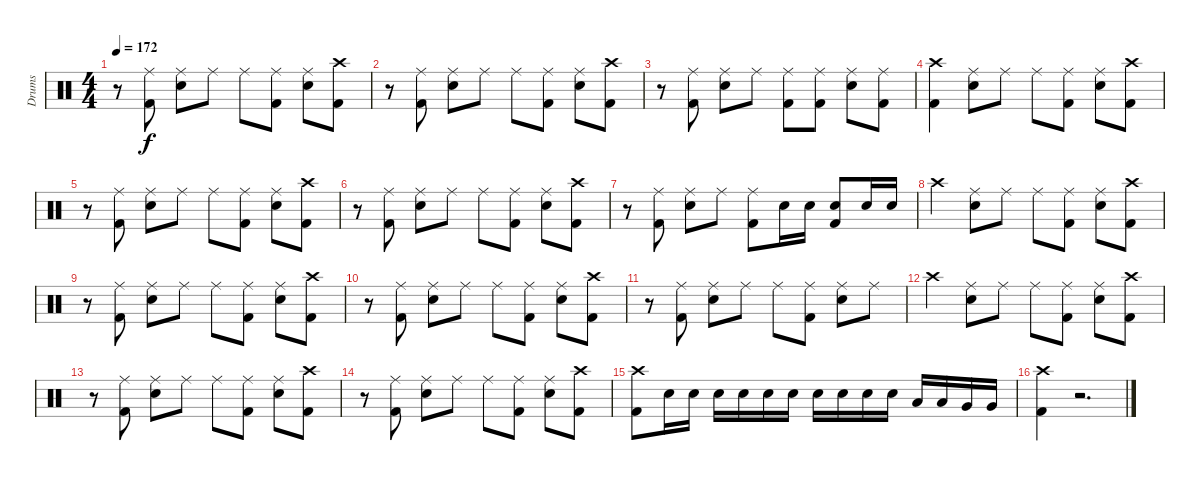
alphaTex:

\track ("Drums" "Drums") {instrument percussion}
\staff {score}
\articulation defaults
\ts (4 4)
\tempo 172
\clef neutral
\ks c
r.8{dy f} ("Ride (middle)" "Kick (hit) 2").8 ("Ride (middle)" "Electric Snare (hit)").8 "Ride (middle)".8 "Ride (middle)".8 ("Ride (middle)" "Kick (hit) 2").8 ("Ride (middle)" "Electric Snare (hit)").8 ("Crash high (hit)" "Kick (hit) 2").8 |
r.8 ("Ride (middle)" "Kick (hit) 2").8 ("Ride (middle)" "Electric Snare (hit)").8 "Ride (middle)".8 "Ride (middle)".8 ("Ride (middle)" "Kick (hit) 2").8 ("Ride (middle)" "Electric Snare (hit)").8 ("Crash high (hit)" "Kick (hit) 2").8 |
r.8 ("Ride (middle)" "Kick (hit) 2").8 ("Ride (middle)" "Electric Snare (hit)").8 "Ride (middle)".8 ("Ride (middle)" "Kick (hit) 2").8 ("Ride (middle)" "Kick (hit) 2").8 ("Ride (middle)" "Electric Snare (hit)").8 ("Ride (middle)" "Kick (hit) 2").8 |
("Crash high (hit)" "Kick (hit) 2").4 ("Ride (middle)" "Electric Snare (hit)").8 "Ride (middle)".8 "Ride (middle)".8 ("Ride (middle)" "Kick (hit) 2").8 ("Ride (middle)" "Electric Snare (hit)").8 ("Crash high (hit)" "Kick (hit) 2").8 |
r.8 ("Ride (middle)" "Kick (hit) 2").8 ("Ride (middle)" "Electric Snare (hit)").8 "Ride (middle)".8 "Ride (middle)".8 ("Ride (middle)" "Kick (hit) 2").8 ("Ride (middle)" "Electric Snare (hit)").8 ("Crash high (hit)" "Kick (hit) 2").8 |
r.8 ("Ride (middle)" "Kick (hit) 2").8 ("Ride (middle)" "Electric Snare (hit)").8 "Ride (middle)".8 "Ride (middle)".8 ("Ride (middle)" "Kick (hit) 2").8 ("Ride (middle)" "Electric Snare (hit)").8 ("Crash high (hit)" "Kick (hit) 2").8 |
r.8 ("Ride (middle)" "Kick (hit) 2").8 ("Ride (middle)" "Electric Snare (hit)").8 "Ride (middle)".8 ("Ride (middle)" "Kick (hit) 2").8 "Electric Snare (hit)".16 "Electric Snare (hit)".16 ("Electric Snare (hit)" "Kick (hit) 2").8 "Electric Snare (hit)".16 "Electric Snare (hit)".16 |
"Crash high (hit)".4 ("Ride (middle)" "Electric Snare (hit)").8 "Ride (middle)".8 "Ride (middle)".8 ("Ride (middle)" "Kick (hit) 2").8 ("Ride (middle)" "Electric Snare (hit)").8 ("Crash high (hit)" "Kick (hit) 2").8 |
r.8 ("Ride (middle)" "Kick (hit) 2").8 ("Ride (middle)" "Electric Snare (hit)").8 "Ride (middle)".8 "Ride (middle)".8 ("Ride (middle)" "Kick (hit) 2").8 ("Ride (middle)" "Electric Snare (hit)").8 ("Crash high (hit)" "Kick (hit) 2").8 |
r.8 ("Ride (middle)" "Kick (hit) 2").8 ("Ride (middle)" "Electric Snare (hit)").8 "Ride (middle)".8 "Ride (middle)".8 ("Ride (middle)" "Kick (hit) 2").8 ("Ride (middle)" "Electric Snare (hit)").8 ("Crash high (hit)" "Kick (hit) 2").8 |
r.8 ("Ride (middle)" "Kick (hit) 2").8 ("Ride (middle)" "Electric Snare (hit)").8 "Ride (middle)".8 "Ride (middle)".8 ("Ride (middle)" "Kick (hit) 2").8 ("Ride (middle)" "Electric Snare (hit)").8 "Ride (middle)".8 |
"Crash high (hit)".4 ("Ride (middle)" "Electric Snare (hit)").8 "Ride (middle)".8 "Ride (middle)".8 ("Ride (middle)" "Kick (hit) 2").8 ("Ride (middle)" "Electric Snare (hit)").8 ("Crash high (hit)" "Kick (hit) 2").8 |
r.8 ("Ride (middle)" "Kick (hit) 2").8 ("Ride (middle)" "Electric Snare (hit)").8 "Ride (middle)".8 "Ride (middle)".8 ("Ride (middle)" "Kick (hit) 2").8 ("Ride (middle)" "Electric Snare (hit)").8 ("Crash high (hit)" "Kick (hit) 2").8 |
r.8 ("Ride (middle)" "Kick (hit) 2").8 ("Ride (middle)" "Electric Snare (hit)").8 "Ride (middle)".8 "Ride (middle)".8 ("Ride (middle)" "Kick (hit) 2").8 ("Ride (middle)" "Electric Snare (hit)").8 ("Crash high (hit)" "Kick (hit) 2").8 |
("Crash high (hit)" "Kick (hit) 2").8 "Electric Snare (hit)".16 "Electric Snare (hit)".16 "Electric Snare (hit)".16 "Electric Snare (hit)".16 "Electric Snare (hit)".16 "Electric Snare (hit)".16 "Electric Snare (hit)".16 "Electric Snare (hit)".16 "Electric Snare (hit)".16 "Electric Snare (hit)".16 "Low Tom (hit)".16 "Low Tom (hit)".16 "Very Low Tom (hit)".16 "Very Low Tom (hit)".16 |
("Crash high (hit)" "Kick (hit) 2").4 r.2{d}
